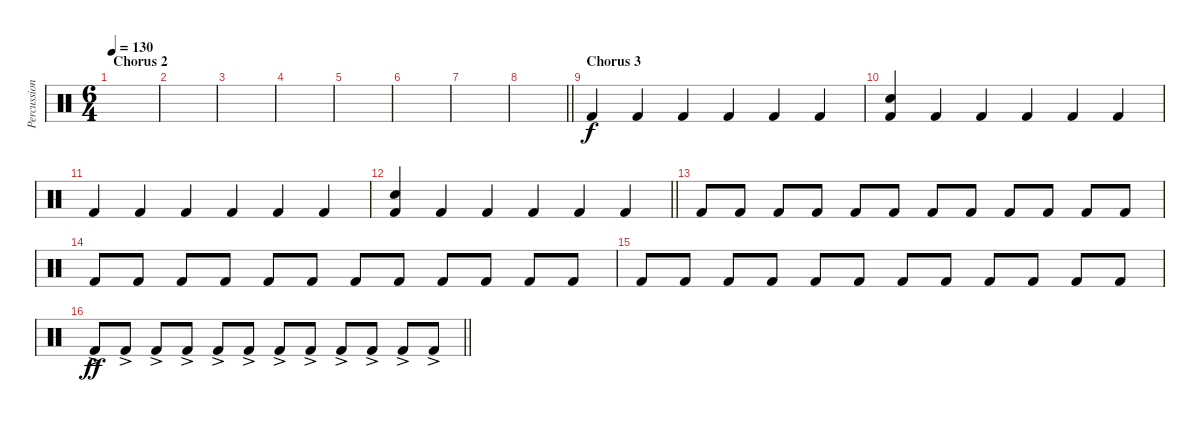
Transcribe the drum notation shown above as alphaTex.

\track ("Percussion" "Percussion") {instrument percussion}
\staff {score}
\articulation defaults
\ts (6 4)
\section ("" "Chorus 2")
\tempo 130
\clef neutral
\ks c
|
|
|
|
|
|
|
\barLineRight lightlight
|
\section ("" "Chorus 3")
"Kick (hit) 2".4 "Kick (hit) 2".4 "Kick (hit) 2".4 "Kick (hit) 2".4 "Kick (hit) 2".4 "Kick (hit) 2".4 |
("Electric Snare (hit)" "Kick (hit) 2").4 "Kick (hit) 2".4 "Kick (hit) 2".4 "Kick (hit) 2".4 "Kick (hit) 2".4 "Kick (hit) 2".4 |
"Kick (hit) 2".4 "Kick (hit) 2".4 "Kick (hit) 2".4 "Kick (hit) 2".4 "Kick (hit) 2".4 "Kick (hit) 2".4 |
\barLineRight lightlight
("Electric Snare (hit)" "Kick (hit) 2").4 "Kick (hit) 2".4 "Kick (hit) 2".4 "Kick (hit) 2".4 "Kick (hit) 2".4 "Kick (hit) 2".4 |
"Kick (hit) 2".8 "Kick (hit) 2".8 "Kick (hit) 2".8 "Kick (hit) 2".8 "Kick (hit) 2".8 "Kick (hit) 2".8 "Kick (hit) 2".8 "Kick (hit) 2".8 "Kick (hit) 2".8 "Kick (hit) 2".8 "Kick (hit) 2".8 "Kick (hit) 2".8 |
"Kick (hit) 2".8 "Kick (hit) 2".8 "Kick (hit) 2".8 "Kick (hit) 2".8 "Kick (hit) 2".8 "Kick (hit) 2".8 "Kick (hit) 2".8 "Kick (hit) 2".8 "Kick (hit) 2".8 "Kick (hit) 2".8 "Kick (hit) 2".8 "Kick (hit) 2".8 |
"Kick (hit) 2".8 "Kick (hit) 2".8 "Kick (hit) 2".8 "Kick (hit) 2".8 "Kick (hit) 2".8 "Kick (hit) 2".8 "Kick (hit) 2".8 "Kick (hit) 2".8 "Kick (hit) 2".8 "Kick (hit) 2".8 "Kick (hit) 2".8 "Kick (hit) 2".8 |
\barLineRight lightlight "Kick (hit) 2"{ac}.8{dy ff} "Kick (hit) 2"{ac}.8 "Kick (hit) 2"{ac}.8 "Kick (hit) 2"{ac}.8 "Kick (hit) 2"{ac}.8 "Kick (hit) 2"{ac}.8 "Kick (hit) 2"{ac}.8 "Kick (hit) 2"{ac}.8 "Kick (hit) 2"{ac}.8 "Kick (hit) 2"{ac}.8 "Kick (hit) 2"{ac}.8 "Kick (hit) 2"{ac}.8
